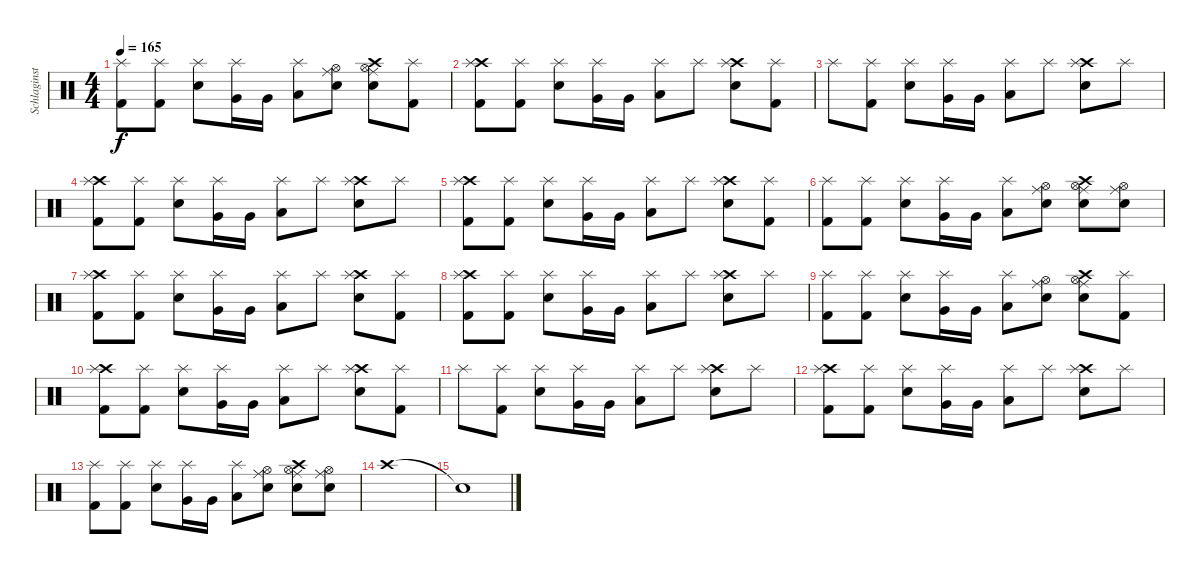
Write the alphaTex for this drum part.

\track ("Schlaginstrumente - Auswahl" "Schlaginst") {instrument percussion}
\staff {score}
\articulation defaults
\ts (4 4)
\tempo 165
\clef neutral
\ks c
("Splash (hit)" "Kick (hit) 2").8{dy f} ("Splash (hit)" "Kick (hit) 2").8 ("Splash (hit)" "Electric Snare (hit)").8 ("Very Low Tom (hit)" "Splash (hit)").16 "Very Low Tom (hit)".16 ("Low Floor Tom (hit)" "Splash (hit)").8 ("Ride (middle)" "Hi-Hat (open)" "Electric Snare (hit)").8 ("Crash high (hit)" "Ride (middle)" "Hi-Hat (open)" "Electric Snare (hit)").8 ("Splash (hit)" "Kick (hit) 2").8 |
("Crash high (hit)" "Splash (hit)" "Kick (hit) 2").8 ("Splash (hit)" "Kick (hit) 2").8 ("Splash (hit)" "Electric Snare (hit)").8 ("Very Low Tom (hit)" "Splash (hit)").16 "Very Low Tom (hit)".16 ("Low Floor Tom (hit)" "Splash (hit)").8 "Splash (hit)".8 ("Crash high (hit)" "Splash (hit)" "Electric Snare (hit)").8 ("Splash (hit)" "Kick (hit) 2").8 |
"Splash (hit)".8 ("Splash (hit)" "Kick (hit) 2").8 ("Splash (hit)" "Electric Snare (hit)").8 ("Very Low Tom (hit)" "Splash (hit)").16 "Very Low Tom (hit)".16 ("Low Floor Tom (hit)" "Splash (hit)").8 "Splash (hit)".8 ("Crash high (hit)" "Splash (hit)" "Electric Snare (hit)").8 "Splash (hit)".8 |
("Crash high (hit)" "Splash (hit)" "Kick (hit) 2").8 ("Splash (hit)" "Kick (hit) 2").8 ("Splash (hit)" "Electric Snare (hit)").8 ("Very Low Tom (hit)" "Splash (hit)").16 "Very Low Tom (hit)".16 ("Low Floor Tom (hit)" "Splash (hit)").8 "Splash (hit)".8 ("Crash high (hit)" "Splash (hit)" "Electric Snare (hit)").8 "Splash (hit)".8 |
("Crash high (hit)" "Splash (hit)" "Kick (hit) 2").8 ("Splash (hit)" "Kick (hit) 2").8 ("Splash (hit)" "Electric Snare (hit)").8 ("Very Low Tom (hit)" "Splash (hit)").16 "Very Low Tom (hit)".16 ("Low Floor Tom (hit)" "Splash (hit)").8 "Splash (hit)".8 ("Crash high (hit)" "Splash (hit)" "Electric Snare (hit)").8 ("Splash (hit)" "Kick (hit) 2").8 |
("Splash (hit)" "Kick (hit) 2").8 ("Splash (hit)" "Kick (hit) 2").8 ("Splash (hit)" "Electric Snare (hit)").8 ("Very Low Tom (hit)" "Splash (hit)").16 "Very Low Tom (hit)".16 ("Low Floor Tom (hit)" "Splash (hit)").8 ("Ride (middle)" "Hi-Hat (open)" "Electric Snare (hit)").8 ("Crash high (hit)" "Ride (middle)" "Hi-Hat (open)" "Electric Snare (hit)").8 ("Ride (middle)" "Hi-Hat (open)" "Electric Snare (hit)").8 |
("Crash high (hit)" "Splash (hit)" "Kick (hit) 2").8 ("Splash (hit)" "Kick (hit) 2").8 ("Splash (hit)" "Electric Snare (hit)").8 ("Very Low Tom (hit)" "Splash (hit)").16 "Very Low Tom (hit)".16 ("Low Floor Tom (hit)" "Splash (hit)").8 "Splash (hit)".8 ("Crash high (hit)" "Splash (hit)" "Electric Snare (hit)").8 ("Splash (hit)" "Kick (hit) 2").8 |
("Crash high (hit)" "Splash (hit)" "Kick (hit) 2").8 ("Splash (hit)" "Kick (hit) 2").8 ("Splash (hit)" "Electric Snare (hit)").8 ("Very Low Tom (hit)" "Splash (hit)").16 "Very Low Tom (hit)".16 ("Low Floor Tom (hit)" "Splash (hit)").8 "Splash (hit)".8 ("Crash high (hit)" "Splash (hit)" "Electric Snare (hit)").8 "Splash (hit)".8 |
("Splash (hit)" "Kick (hit) 2").8 ("Splash (hit)" "Kick (hit) 2").8 ("Splash (hit)" "Electric Snare (hit)").8 ("Very Low Tom (hit)" "Splash (hit)").16 "Very Low Tom (hit)".16 ("Low Floor Tom (hit)" "Splash (hit)").8 ("Ride (middle)" "Hi-Hat (open)" "Electric Snare (hit)").8 ("Crash high (hit)" "Ride (middle)" "Hi-Hat (open)" "Electric Snare (hit)").8 ("Splash (hit)" "Kick (hit) 2").8 |
("Crash high (hit)" "Splash (hit)" "Kick (hit) 2").8 ("Splash (hit)" "Kick (hit) 2").8 ("Splash (hit)" "Electric Snare (hit)").8 ("Very Low Tom (hit)" "Splash (hit)").16 "Very Low Tom (hit)".16 ("Low Floor Tom (hit)" "Splash (hit)").8 "Splash (hit)".8 ("Crash high (hit)" "Splash (hit)" "Electric Snare (hit)").8 ("Splash (hit)" "Kick (hit) 2").8 |
"Splash (hit)".8 ("Splash (hit)" "Kick (hit) 2").8 ("Splash (hit)" "Electric Snare (hit)").8 ("Very Low Tom (hit)" "Splash (hit)").16 "Very Low Tom (hit)".16 ("Low Floor Tom (hit)" "Splash (hit)").8 "Splash (hit)".8 ("Crash high (hit)" "Splash (hit)" "Electric Snare (hit)").8 "Splash (hit)".8 |
("Crash high (hit)" "Splash (hit)" "Kick (hit) 2").8 ("Splash (hit)" "Kick (hit) 2").8 ("Splash (hit)" "Electric Snare (hit)").8 ("Very Low Tom (hit)" "Splash (hit)").16 "Very Low Tom (hit)".16 ("Low Floor Tom (hit)" "Splash (hit)").8 "Splash (hit)".8 ("Crash high (hit)" "Splash (hit)" "Electric Snare (hit)").8 "Splash (hit)".8 |
("Splash (hit)" "Kick (hit) 2").8 ("Splash (hit)" "Kick (hit) 2").8 ("Splash (hit)" "Electric Snare (hit)").8 ("Very Low Tom (hit)" "Splash (hit)").16 "Very Low Tom (hit)".16 ("Low Floor Tom (hit)" "Splash (hit)").8 ("Ride (middle)" "Hi-Hat (open)" "Electric Snare (hit)").8 ("Crash high (hit)" "Ride (middle)" "Hi-Hat (open)" "Electric Snare (hit)").8 ("Ride (middle)" "Hi-Hat (open)" "Electric Snare (hit)").8 |
"Crash high (hit)".1 |
"Snare (hit)"{t}.1
